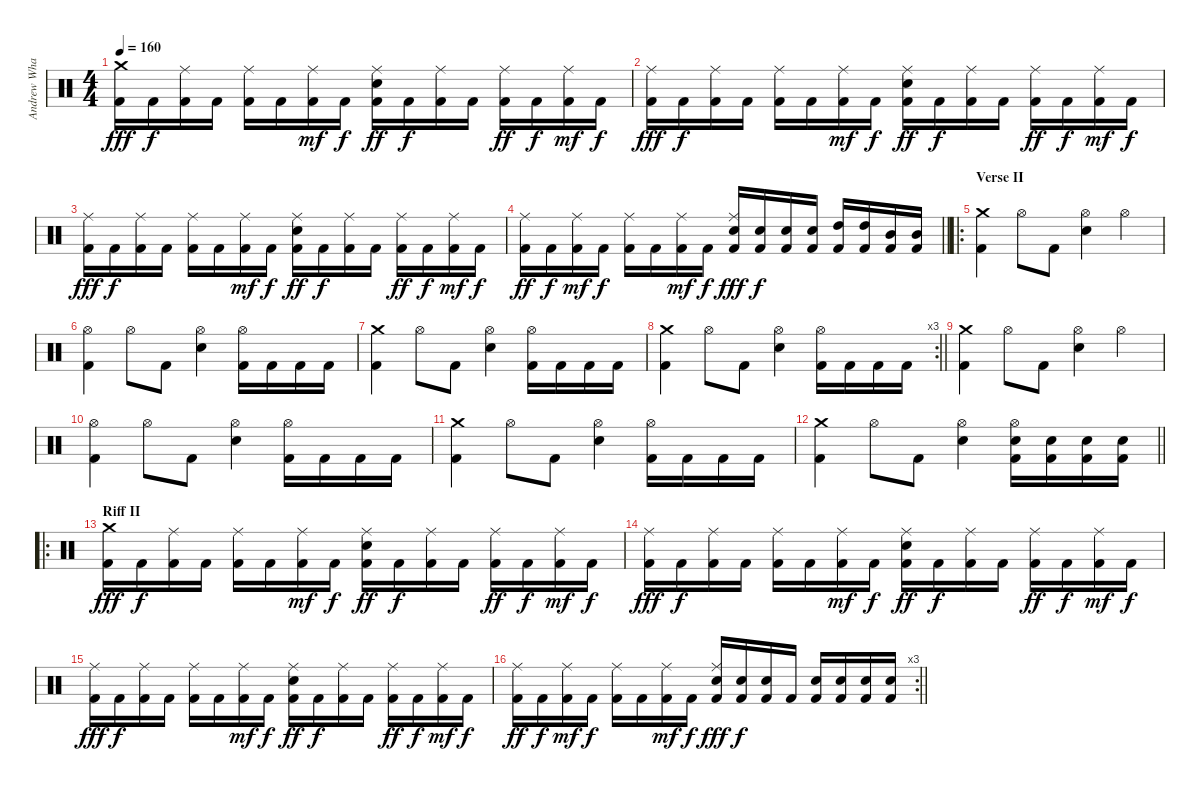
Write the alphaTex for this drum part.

\track ("Andrew Whale" "Andrew Wha") {instrument percussion}
\staff {score}
\articulation defaults
\ts (4 4)
\tempo 160
\clef neutral
\ks c
("Crash medium (hit)" "Kick (hit) 2").16{dy fff} "Kick (hit) 2".16{dy f} ("Ride (middle)" "Kick (hit) 2").16 "Kick (hit) 2".16 ("Ride (middle)" "Kick (hit) 2").16 "Kick (hit) 2".16 ("Ride (middle)" "Kick (hit) 2").16{dy mf} "Kick (hit) 2".16{dy f} ("Ride (middle)" "Snare (hit) 2" "Kick (hit) 2").16{dy ff} "Kick (hit) 2".16{dy f} ("Ride (middle)" "Kick (hit) 2").16 "Kick (hit) 2".16 ("Ride (middle)" "Kick (hit) 2").16{dy ff} "Kick (hit) 2".16{dy f} ("Ride (middle)" "Kick (hit) 2").16{dy mf} "Kick (hit) 2".16{dy f} |
("Ride (middle)" "Kick (hit) 2").16{dy fff} "Kick (hit) 2".16{dy f} ("Ride (middle)" "Kick (hit) 2").16 "Kick (hit) 2".16 ("Ride (middle)" "Kick (hit) 2").16 "Kick (hit) 2".16 ("Ride (middle)" "Kick (hit) 2").16{dy mf} "Kick (hit) 2".16{dy f} ("Ride (middle)" "Snare (hit) 2" "Kick (hit) 2").16{dy ff} "Kick (hit) 2".16{dy f} ("Ride (middle)" "Kick (hit) 2").16 "Kick (hit) 2".16 ("Ride (middle)" "Kick (hit) 2").16{dy ff} "Kick (hit) 2".16{dy f} ("Ride (middle)" "Kick (hit) 2").16{dy mf} "Kick (hit) 2".16{dy f} |
("Ride (middle)" "Kick (hit) 2").16{dy fff} "Kick (hit) 2".16{dy f} ("Ride (middle)" "Kick (hit) 2").16 "Kick (hit) 2".16 ("Ride (middle)" "Kick (hit) 2").16 "Kick (hit) 2".16 ("Ride (middle)" "Kick (hit) 2").16{dy mf} "Kick (hit) 2".16{dy f} ("Ride (middle)" "Snare (hit) 2" "Kick (hit) 2").16{dy ff} "Kick (hit) 2".16{dy f} ("Ride (middle)" "Kick (hit) 2").16 "Kick (hit) 2".16 ("Ride (middle)" "Kick (hit) 2").16{dy ff} "Kick (hit) 2".16{dy f} ("Ride (middle)" "Kick (hit) 2").16{dy mf} "Kick (hit) 2".16{dy f} |
\barLineRight lightlight
("Ride (middle)" "Kick (hit) 2").16{dy ff} "Kick (hit) 2".16{dy f} ("Ride (middle)" "Kick (hit) 2").16{dy mf} "Kick (hit) 2".16{dy f} ("Ride (middle)" "Kick (hit) 2").16 "Kick (hit) 2".16 ("Ride (middle)" "Kick (hit) 2").16{dy mf} "Kick (hit) 2".16{dy f} ("Ride (middle)" "Snare (hit) 2" "Kick (hit) 2").16{dy fff} ("Snare (hit) 2" "Kick (hit) 2").16{dy f} ("Snare (hit) 2" "Kick (hit) 2").16 ("Snare (hit) 2" "Kick (hit) 2").16 ("High Tom (hit)" "Kick (hit) 2").16 ("High Tom (hit)" "Kick (hit) 2").16 ("Mid Tom (hit)" "Kick (hit) 2").16 ("Mid Tom (hit)" "Kick (hit) 2").16 |
\ro
\section ("" "Verse II")
("Crash medium (hit)" "Kick (hit) 2").4 "Hi-Hat (open)".8 "Kick (hit) 2".8 ("Hi-Hat (open)" "Snare (hit) 2").4 "Hi-Hat (open)".4 |
("Hi-Hat (open)" "Kick (hit) 2").4 "Hi-Hat (open)".8 "Kick (hit) 2".8 ("Hi-Hat (open)" "Snare (hit) 2").4 ("Hi-Hat (open)" "Kick (hit) 2").16 "Kick (hit) 2".16 "Kick (hit) 2".16 "Kick (hit) 2".16 |
("Crash medium (hit)" "Kick (hit) 2").4 "Hi-Hat (open)".8 "Kick (hit) 2".8 ("Hi-Hat (open)" "Snare (hit) 2").4 ("Hi-Hat (open)" "Kick (hit) 2").16 "Kick (hit) 2".16 "Kick (hit) 2".16 "Kick (hit) 2".16 |
\rc 3
\barLineRight lightlight
("Crash medium (hit)" "Kick (hit) 2").4 "Hi-Hat (open)".8 "Kick (hit) 2".8 ("Hi-Hat (open)" "Snare (hit) 2").4 ("Hi-Hat (open)" "Kick (hit) 2").16 "Kick (hit) 2".16 "Kick (hit) 2".16 "Kick (hit) 2".16 |
("Crash medium (hit)" "Kick (hit) 2").4 "Hi-Hat (open)".8 "Kick (hit) 2".8 ("Hi-Hat (open)" "Snare (hit) 2").4 "Hi-Hat (open)".4 |
("Hi-Hat (open)" "Kick (hit) 2").4 "Hi-Hat (open)".8 "Kick (hit) 2".8 ("Hi-Hat (open)" "Snare (hit) 2").4 ("Hi-Hat (open)" "Kick (hit) 2").16 "Kick (hit) 2".16 "Kick (hit) 2".16 "Kick (hit) 2".16 |
("Crash medium (hit)" "Kick (hit) 2").4 "Hi-Hat (open)".8 "Kick (hit) 2".8 ("Hi-Hat (open)" "Snare (hit) 2").4 ("Hi-Hat (open)" "Kick (hit) 2").16 "Kick (hit) 2".16 "Kick (hit) 2".16 "Kick (hit) 2".16 |
\barLineRight lightlight
("Crash medium (hit)" "Kick (hit) 2").4 "Hi-Hat (open)".8 "Kick (hit) 2".8 ("Hi-Hat (open)" "Snare (hit) 2").4 ("Hi-Hat (open)" "Snare (hit) 2" "Kick (hit) 2").16 ("Snare (hit) 2" "Kick (hit) 2").16 ("Snare (hit) 2" "Kick (hit) 2").16 ("Snare (hit) 2" "Kick (hit) 2").16 |
\ro
\section ("" "Riff II")
("Crash medium (hit)" "Kick (hit) 2").16{dy fff} "Kick (hit) 2".16{dy f} ("Ride (middle)" "Kick (hit) 2").16 "Kick (hit) 2".16 ("Ride (middle)" "Kick (hit) 2").16 "Kick (hit) 2".16 ("Ride (middle)" "Kick (hit) 2").16{dy mf} "Kick (hit) 2".16{dy f} ("Ride (middle)" "Snare (hit) 2" "Kick (hit) 2").16{dy ff} "Kick (hit) 2".16{dy f} ("Ride (middle)" "Kick (hit) 2").16 "Kick (hit) 2".16 ("Ride (middle)" "Kick (hit) 2").16{dy ff} "Kick (hit) 2".16{dy f} ("Ride (middle)" "Kick (hit) 2").16{dy mf} "Kick (hit) 2".16{dy f} |
("Ride (middle)" "Kick (hit) 2").16{dy fff} "Kick (hit) 2".16{dy f} ("Ride (middle)" "Kick (hit) 2").16 "Kick (hit) 2".16 ("Ride (middle)" "Kick (hit) 2").16 "Kick (hit) 2".16 ("Ride (middle)" "Kick (hit) 2").16{dy mf} "Kick (hit) 2".16{dy f} ("Ride (middle)" "Snare (hit) 2" "Kick (hit) 2").16{dy ff} "Kick (hit) 2".16{dy f} ("Ride (middle)" "Kick (hit) 2").16 "Kick (hit) 2".16 ("Ride (middle)" "Kick (hit) 2").16{dy ff} "Kick (hit) 2".16{dy f} ("Ride (middle)" "Kick (hit) 2").16{dy mf} "Kick (hit) 2".16{dy f} |
("Ride (middle)" "Kick (hit) 2").16{dy fff} "Kick (hit) 2".16{dy f} ("Ride (middle)" "Kick (hit) 2").16 "Kick (hit) 2".16 ("Ride (middle)" "Kick (hit) 2").16 "Kick (hit) 2".16 ("Ride (middle)" "Kick (hit) 2").16{dy mf} "Kick (hit) 2".16{dy f} ("Ride (middle)" "Snare (hit) 2" "Kick (hit) 2").16{dy ff} "Kick (hit) 2".16{dy f} ("Ride (middle)" "Kick (hit) 2").16 "Kick (hit) 2".16 ("Ride (middle)" "Kick (hit) 2").16{dy ff} "Kick (hit) 2".16{dy f} ("Ride (middle)" "Kick (hit) 2").16{dy mf} "Kick (hit) 2".16{dy f} |
\rc 3
\barLineRight lightlight
("Ride (middle)" "Kick (hit) 2").16{dy ff} "Kick (hit) 2".16{dy f} ("Ride (middle)" "Kick (hit) 2").16{dy mf} "Kick (hit) 2".16{dy f} ("Ride (middle)" "Kick (hit) 2").16 "Kick (hit) 2".16 ("Ride (middle)" "Kick (hit) 2").16{dy mf} "Kick (hit) 2".16{dy f} ("Ride (middle)" "Snare (hit) 2" "Kick (hit) 2").16{dy fff} ("Snare (hit) 2" "Kick (hit) 2").16{dy f} ("Snare (hit) 2" "Kick (hit) 2").16 "Kick (hit) 2".16 ("Snare (hit) 2" "Kick (hit) 2").16 ("Snare (hit) 2" "Kick (hit) 2").16 ("Snare (hit) 2" "Kick (hit) 2").16 ("Snare (hit) 2" "Kick (hit) 2").16
